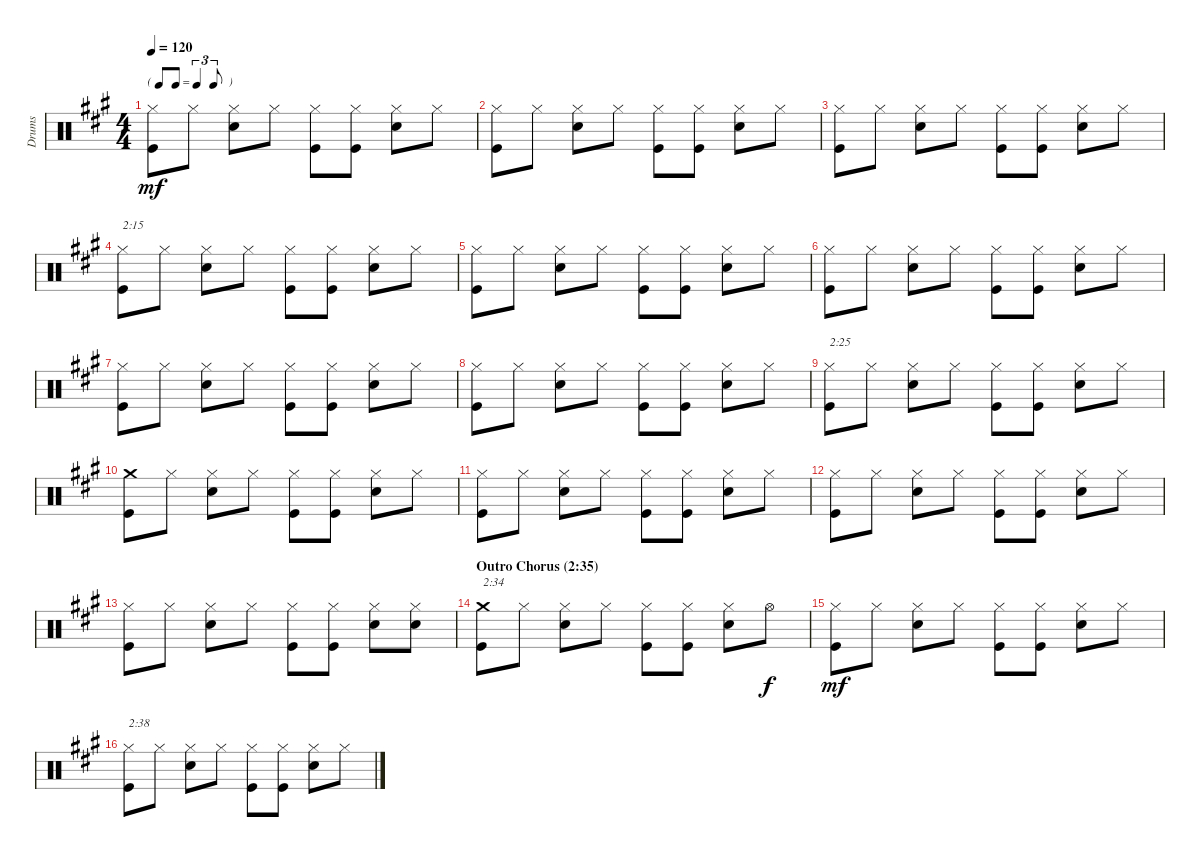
\track ("Drums" "Drums") {instrument percussion}
\staff {score}
\articulation defaults
\ts (4 4)
\tf triplet8th
\tempo 120
\clef neutral
\ks a
("Hi-Hat (closed)" "Kick (hit)").8{dy mf} "Hi-Hat (closed)".8 ("Hi-Hat (closed)" "Snare (hit) 2").8 "Hi-Hat (closed)".8 ("Hi-Hat (closed)" "Kick (hit)").8 ("Hi-Hat (closed)" "Kick (hit)").8 ("Hi-Hat (closed)" "Snare (hit) 2").8 "Hi-Hat (closed)".8 |
("Hi-Hat (closed)" "Kick (hit)").8 "Hi-Hat (closed)".8 ("Hi-Hat (closed)" "Snare (hit) 2").8 "Hi-Hat (closed)".8 ("Hi-Hat (closed)" "Kick (hit)").8 ("Hi-Hat (closed)" "Kick (hit)").8 ("Hi-Hat (closed)" "Snare (hit) 2").8 "Hi-Hat (closed)".8 |
("Hi-Hat (closed)" "Kick (hit)").8 "Hi-Hat (closed)".8 ("Hi-Hat (closed)" "Snare (hit) 2").8 "Hi-Hat (closed)".8 ("Hi-Hat (closed)" "Kick (hit)").8 ("Hi-Hat (closed)" "Kick (hit)").8 ("Hi-Hat (closed)" "Snare (hit) 2").8 "Hi-Hat (closed)".8 |
("Hi-Hat (closed)" "Kick (hit)").8{txt "2:15"} "Hi-Hat (closed)".8 ("Hi-Hat (closed)" "Snare (hit) 2").8 "Hi-Hat (closed)".8 ("Hi-Hat (closed)" "Kick (hit)").8 ("Hi-Hat (closed)" "Kick (hit)").8 ("Hi-Hat (closed)" "Snare (hit) 2").8 "Hi-Hat (closed)".8 |
("Hi-Hat (closed)" "Kick (hit)").8 "Hi-Hat (closed)".8 ("Hi-Hat (closed)" "Snare (hit) 2").8 "Hi-Hat (closed)".8 ("Hi-Hat (closed)" "Kick (hit)").8 ("Hi-Hat (closed)" "Kick (hit)").8 ("Hi-Hat (closed)" "Snare (hit) 2").8 "Hi-Hat (closed)".8 |
("Hi-Hat (closed)" "Kick (hit)").8 "Hi-Hat (closed)".8 ("Hi-Hat (closed)" "Snare (hit) 2").8 "Hi-Hat (closed)".8 ("Hi-Hat (closed)" "Kick (hit)").8 ("Hi-Hat (closed)" "Kick (hit)").8 ("Hi-Hat (closed)" "Snare (hit) 2").8 "Hi-Hat (closed)".8 |
("Hi-Hat (closed)" "Kick (hit)").8 "Hi-Hat (closed)".8 ("Hi-Hat (closed)" "Snare (hit) 2").8 "Hi-Hat (closed)".8 ("Hi-Hat (closed)" "Kick (hit)").8 ("Hi-Hat (closed)" "Kick (hit)").8 ("Hi-Hat (closed)" "Snare (hit) 2").8 "Hi-Hat (closed)".8 |
("Hi-Hat (closed)" "Kick (hit)").8 "Hi-Hat (closed)".8 ("Hi-Hat (closed)" "Snare (hit) 2").8 "Hi-Hat (closed)".8 ("Hi-Hat (closed)" "Kick (hit)").8 ("Hi-Hat (closed)" "Kick (hit)").8 ("Hi-Hat (closed)" "Snare (hit) 2").8 "Hi-Hat (closed)".8 |
("Hi-Hat (closed)" "Kick (hit)").8{txt "2:25"} "Hi-Hat (closed)".8 ("Hi-Hat (closed)" "Snare (hit) 2").8 "Hi-Hat (closed)".8 ("Hi-Hat (closed)" "Kick (hit)").8 ("Hi-Hat (closed)" "Kick (hit)").8 ("Hi-Hat (closed)" "Snare (hit) 2").8 "Hi-Hat (closed)".8 |
("Crash medium (hit)" "Kick (hit)").8 "Hi-Hat (closed)".8 ("Hi-Hat (closed)" "Snare (hit) 2").8 "Hi-Hat (closed)".8 ("Hi-Hat (closed)" "Kick (hit)").8 ("Hi-Hat (closed)" "Kick (hit)").8 ("Hi-Hat (closed)" "Snare (hit) 2").8 "Hi-Hat (closed)".8 |
("Hi-Hat (closed)" "Kick (hit)").8 "Hi-Hat (closed)".8 ("Hi-Hat (closed)" "Snare (hit) 2").8 "Hi-Hat (closed)".8 ("Hi-Hat (closed)" "Kick (hit)").8 ("Hi-Hat (closed)" "Kick (hit)").8 ("Hi-Hat (closed)" "Snare (hit) 2").8 "Hi-Hat (closed)".8 |
("Hi-Hat (closed)" "Kick (hit)").8 "Hi-Hat (closed)".8 ("Hi-Hat (closed)" "Snare (hit) 2").8 "Hi-Hat (closed)".8 ("Hi-Hat (closed)" "Kick (hit)").8 ("Hi-Hat (closed)" "Kick (hit)").8 ("Hi-Hat (closed)" "Snare (hit) 2").8 "Hi-Hat (closed)".8 |
("Hi-Hat (closed)" "Kick (hit)").8 "Hi-Hat (closed)".8 ("Hi-Hat (closed)" "Snare (hit) 2").8 "Hi-Hat (closed)".8 ("Hi-Hat (closed)" "Kick (hit)").8 ("Hi-Hat (closed)" "Kick (hit)").8 ("Hi-Hat (closed)" "Snare (hit) 2"{tr (38 16)}).8 ("Hi-Hat (closed)" "Snare (hit) 2").8 |
\section ("" "Outro Chorus (2:35)")
("Crash medium (hit)" "Kick (hit)").8{txt "2:34"} "Hi-Hat (closed)".8 ("Hi-Hat (closed)" "Snare (hit) 2").8 "Hi-Hat (closed)".8 ("Hi-Hat (closed)" "Kick (hit)").8 ("Hi-Hat (closed)" "Kick (hit)").8 ("Hi-Hat (closed)" "Snare (hit) 2").8 "Hi-Hat (open)".8{dy f} |
("Hi-Hat (closed)" "Kick (hit)").8{dy mf} "Hi-Hat (closed)".8 ("Hi-Hat (closed)" "Snare (hit) 2").8 "Hi-Hat (closed)".8 ("Hi-Hat (closed)" "Kick (hit)").8 ("Hi-Hat (closed)" "Kick (hit)").8 ("Hi-Hat (closed)" "Snare (hit) 2").8 "Hi-Hat (closed)".8 |
("Hi-Hat (closed)" "Kick (hit)").8{txt "2:38"} "Hi-Hat (closed)".8 ("Hi-Hat (closed)" "Snare (hit) 2").8 "Hi-Hat (closed)".8 ("Hi-Hat (closed)" "Kick (hit)").8 ("Hi-Hat (closed)" "Kick (hit)").8 ("Hi-Hat (closed)" "Snare (hit) 2").8 "Hi-Hat (closed)".8
